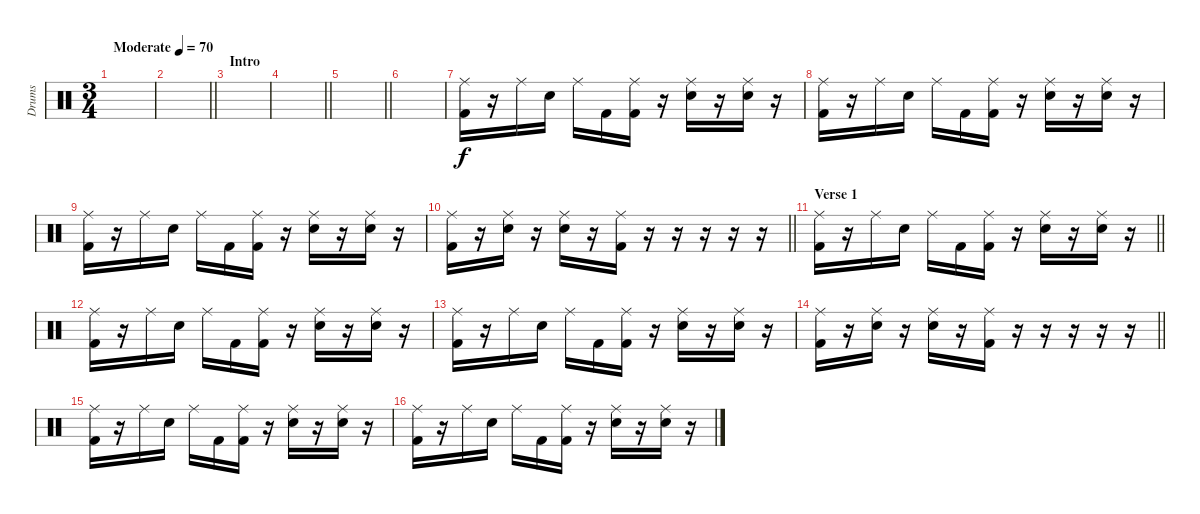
\track ("Drums" "Drums") {instrument percussion}
\staff {score}
\articulation defaults
\ts (3 4)
\tempo (70 "Moderate")
\clef neutral
\ks c
|
\barLineRight lightlight
|
\section ("" "Intro")
|
\barLineRight lightlight
|
\barLineRight lightlight
|
|
("Ride (middle)" "Kick (hit) 2").16 r.16 "Ride (middle)".16 "Electric Snare (hit)".16 "Ride (middle)".16 "Kick (hit) 2".16 ("Ride (middle)" "Kick (hit) 2").16 r.16 ("Ride (middle)" "Electric Snare (hit)").16 r.16 ("Ride (middle)" "Electric Snare (hit)").16 r.16 |
("Ride (middle)" "Kick (hit) 2").16 r.16 "Ride (middle)".16 "Electric Snare (hit)".16 "Ride (middle)".16 "Kick (hit) 2".16 ("Ride (middle)" "Kick (hit) 2").16 r.16 ("Ride (middle)" "Electric Snare (hit)").16 r.16 ("Ride (middle)" "Electric Snare (hit)").16 r.16 |
("Ride (middle)" "Kick (hit) 2").16 r.16 "Ride (middle)".16 "Electric Snare (hit)".16 "Ride (middle)".16 "Kick (hit) 2".16 ("Ride (middle)" "Kick (hit) 2").16 r.16 ("Ride (middle)" "Electric Snare (hit)").16 r.16 ("Ride (middle)" "Electric Snare (hit)").16 r.16 |
\barLineRight lightlight
("Ride (middle)" "Kick (hit) 2").16 r.16 ("Ride (middle)" "Electric Snare (hit)").16 r.16 ("Ride (middle)" "Electric Snare (hit)").16 r.16 ("Ride (middle)" "Kick (hit) 2").16 r.16 r.16 r.16 r.16 r.16 |
\section ("" "Verse 1")
\barLineRight lightlight
("Ride (middle)" "Kick (hit) 2").16 r.16 "Ride (middle)".16 "Electric Snare (hit)".16 "Ride (middle)".16 "Kick (hit) 2".16 ("Ride (middle)" "Kick (hit) 2").16 r.16 ("Ride (middle)" "Electric Snare (hit)").16 r.16 ("Ride (middle)" "Electric Snare (hit)").16 r.16 |
("Ride (middle)" "Kick (hit) 2").16 r.16 "Ride (middle)".16 "Electric Snare (hit)".16 "Ride (middle)".16 "Kick (hit) 2".16 ("Ride (middle)" "Kick (hit) 2").16 r.16 ("Ride (middle)" "Electric Snare (hit)").16 r.16 ("Ride (middle)" "Electric Snare (hit)").16 r.16 |
("Ride (middle)" "Kick (hit) 2").16 r.16 "Ride (middle)".16 "Electric Snare (hit)".16 "Ride (middle)".16 "Kick (hit) 2".16 ("Ride (middle)" "Kick (hit) 2").16 r.16 ("Ride (middle)" "Electric Snare (hit)").16 r.16 ("Ride (middle)" "Electric Snare (hit)").16 r.16 |
\barLineRight lightlight
("Ride (middle)" "Kick (hit) 2").16 r.16 ("Ride (middle)" "Electric Snare (hit)").16 r.16 ("Ride (middle)" "Electric Snare (hit)").16 r.16 ("Ride (middle)" "Kick (hit) 2").16 r.16 r.16 r.16 r.16 r.16 |
("Ride (middle)" "Kick (hit) 2").16 r.16 "Ride (middle)".16 "Electric Snare (hit)".16 "Ride (middle)".16 "Kick (hit) 2".16 ("Ride (middle)" "Kick (hit) 2").16 r.16 ("Ride (middle)" "Electric Snare (hit)").16 r.16 ("Ride (middle)" "Electric Snare (hit)").16 r.16 |
("Ride (middle)" "Kick (hit) 2").16 r.16 "Ride (middle)".16 "Electric Snare (hit)".16 "Ride (middle)".16 "Kick (hit) 2".16 ("Ride (middle)" "Kick (hit) 2").16 r.16 ("Ride (middle)" "Electric Snare (hit)").16 r.16 ("Ride (middle)" "Electric Snare (hit)").16 r.16
